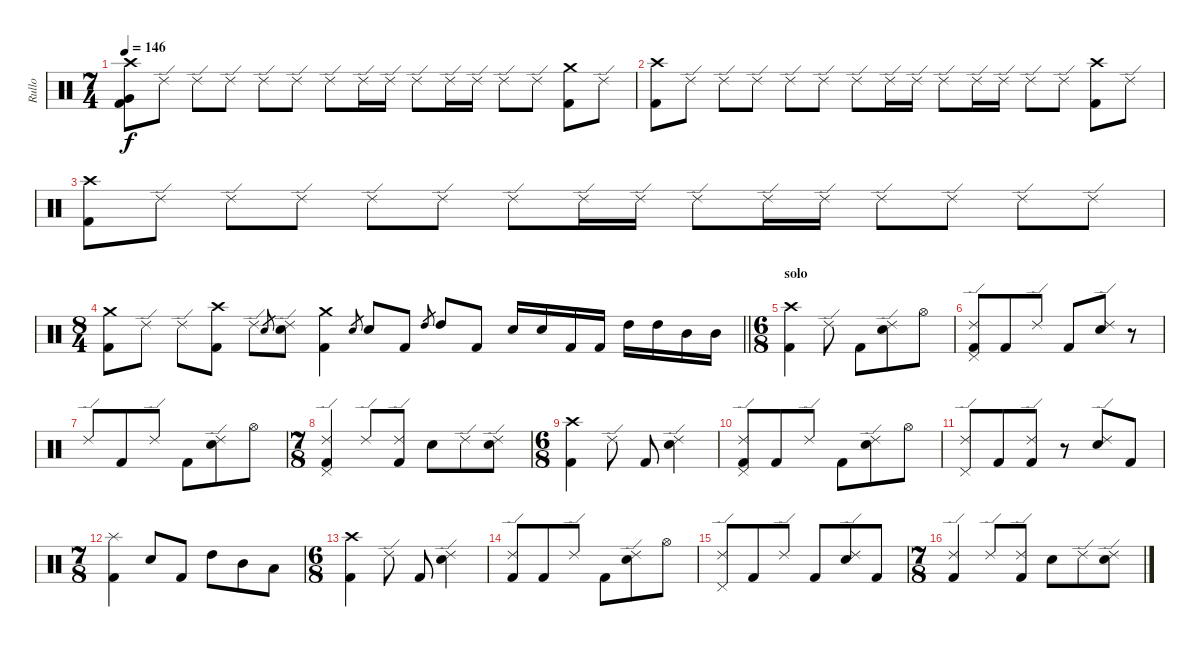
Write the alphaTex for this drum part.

\track ("Rullo" "Rullo") {instrument percussion}
\staff {score}
\articulation defaults
\ts (7 4)
\tempo 146
\clef neutral
\ks c
("Crash high (hit)" "Very Low Tom (hit)" "Kick (hit) 2").8{dy f} "Ride (edge) 2".8 "Ride (edge) 2".8 "Ride (edge) 2".8 "Ride (edge) 2".8 "Ride (edge) 2".8 "Ride (edge) 2".8 "Ride (edge) 2".16 "Ride (edge) 2".16 "Ride (edge) 2".8 "Ride (edge) 2".16 "Ride (edge) 2".16 "Ride (edge) 2".8 "Ride (edge) 2".8 ("Crash medium (hit)" "Kick (hit) 2").8 "Ride (edge) 2".8 |
("Crash high (hit)" "Kick (hit) 2").8 "Ride (edge) 2".8 "Ride (edge) 2".8 "Ride (edge) 2".8 "Ride (edge) 2".8 "Ride (edge) 2".8 "Ride (edge) 2".8 "Ride (edge) 2".16 "Ride (edge) 2".16 "Ride (edge) 2".8 "Ride (edge) 2".16 "Ride (edge) 2".16 "Ride (edge) 2".8 "Ride (edge) 2".8 ("Crash high (hit)" "Kick (hit) 2").8 "Ride (edge) 2".8 |
("Crash high (hit)" "Kick (hit) 2").8 "Ride (edge) 2".8 "Ride (edge) 2".8 "Ride (edge) 2".8 "Ride (edge) 2".8 "Ride (edge) 2".8 "Ride (edge) 2".8 "Ride (edge) 2".16 "Ride (edge) 2".16 "Ride (edge) 2".8 "Ride (edge) 2".16 "Ride (edge) 2".16 "Ride (edge) 2".8 "Ride (edge) 2".8 "Ride (edge) 2".8 "Ride (edge) 2".8 |
\ts (8 4)
\barLineRight lightlight
("Crash medium (hit)" "Kick (hit) 2").8 "Ride (edge) 2".8 "Ride (edge) 2".8 ("Crash high (hit)" "Kick (hit) 2").8 "Ride (edge) 2".8 "Electric Snare (hit)".8{gr} ("Ride (edge) 2" "Electric Snare (hit)").8 ("Crash medium (hit)" "Kick (hit) 2").4 "Electric Snare (hit)".8{gr} "Electric Snare (hit)".8 "Kick (hit) 2".8 "High Tom (hit)".8{gr} "High Tom (hit)".8 "Kick (hit) 2".8 "Electric Snare (hit)".16 "Electric Snare (hit)".16 "Kick (hit) 2".16 "Kick (hit) 2".16 "High Tom (hit)".16 "High Tom (hit)".16 "Mid Tom (hit)".16 "Mid Tom (hit)".16 |
\ts (6 8)
\section ("" "solo")
("Crash high (hit)" "Kick (hit) 2").4 "Ride (edge) 2".8 "Kick (hit) 2".8 ("Ride (edge) 2" "Electric Snare (hit)").8 "Hi-Hat (open)".8 |
("Ride (edge) 2" "Pedal Hi-Hat (hit)" "Kick (hit) 2").8 "Kick (hit) 2".8 "Ride (edge) 2".8 "Kick (hit) 2".8 ("Ride (edge) 2" "Electric Snare (hit)").8 r.8 |
"Ride (edge) 2".8 "Kick (hit) 2".8 "Ride (edge) 2".8 "Kick (hit) 2".8 ("Ride (edge) 2" "Electric Snare (hit)").8 "Hi-Hat (open)".8 |
\ts (7 8)
("Ride (edge) 2" "Pedal Hi-Hat (hit)" "Kick (hit) 2").4 "Ride (edge) 2".8 ("Ride (edge) 2" "Kick (hit) 2").8 "Electric Snare (hit)".8 "Ride (edge) 2".8 ("Ride (edge) 2" "Electric Snare (hit)").8 |
\ts (6 8)
("Crash high (hit)" "Kick (hit) 2").4 "Ride (edge) 2".8 "Kick (hit) 2".8 ("Ride (edge) 2" "Electric Snare (hit)").4 |
("Ride (edge) 2" "Pedal Hi-Hat (hit)" "Kick (hit) 2").8 "Kick (hit) 2".8 "Ride (edge) 2".8 "Kick (hit) 2".8 ("Ride (edge) 2" "Electric Snare (hit)").8 "Hi-Hat (open)".8 |
("Ride (edge) 2" "Pedal Hi-Hat (hit)").8 "Kick (hit) 2".8 ("Ride (edge) 2" "Kick (hit) 2").8 r.8 ("Ride (edge) 2" "Electric Snare (hit)").8 "Kick (hit) 2".8 |
\ts (7 8)
("Splash (hit)" "Kick (hit) 2").4 "Electric Snare (hit)".8 "Kick (hit) 2".8 "High Tom (hit)".8 "Mid Tom (hit)".8 "Low Tom (hit)".8 |
\ts (6 8)
("Crash high (hit)" "Kick (hit) 2").4 "Ride (edge) 2".8 "Kick (hit) 2".8 ("Ride (edge) 2" "Electric Snare (hit)").4 |
("Ride (edge) 2" "Kick (hit) 2").8 "Kick (hit) 2".8 "Ride (edge) 2".8 "Kick (hit) 2".8 ("Ride (edge) 2" "Electric Snare (hit)").8 "Hi-Hat (open)".8 |
("Ride (edge) 2" "Pedal Hi-Hat (hit)").8 "Kick (hit) 2".8 "Ride (edge) 2".8 "Kick (hit) 2".8 ("Ride (edge) 2" "Electric Snare (hit)").8 "Kick (hit) 2".8 |
\ts (7 8)
("Ride (edge) 2" "Kick (hit) 2").4 "Ride (edge) 2".8 ("Ride (edge) 2" "Kick (hit) 2").8 "Electric Snare (hit)".8 "Ride (edge) 2".8 ("Ride (edge) 2" "Electric Snare (hit)").8
